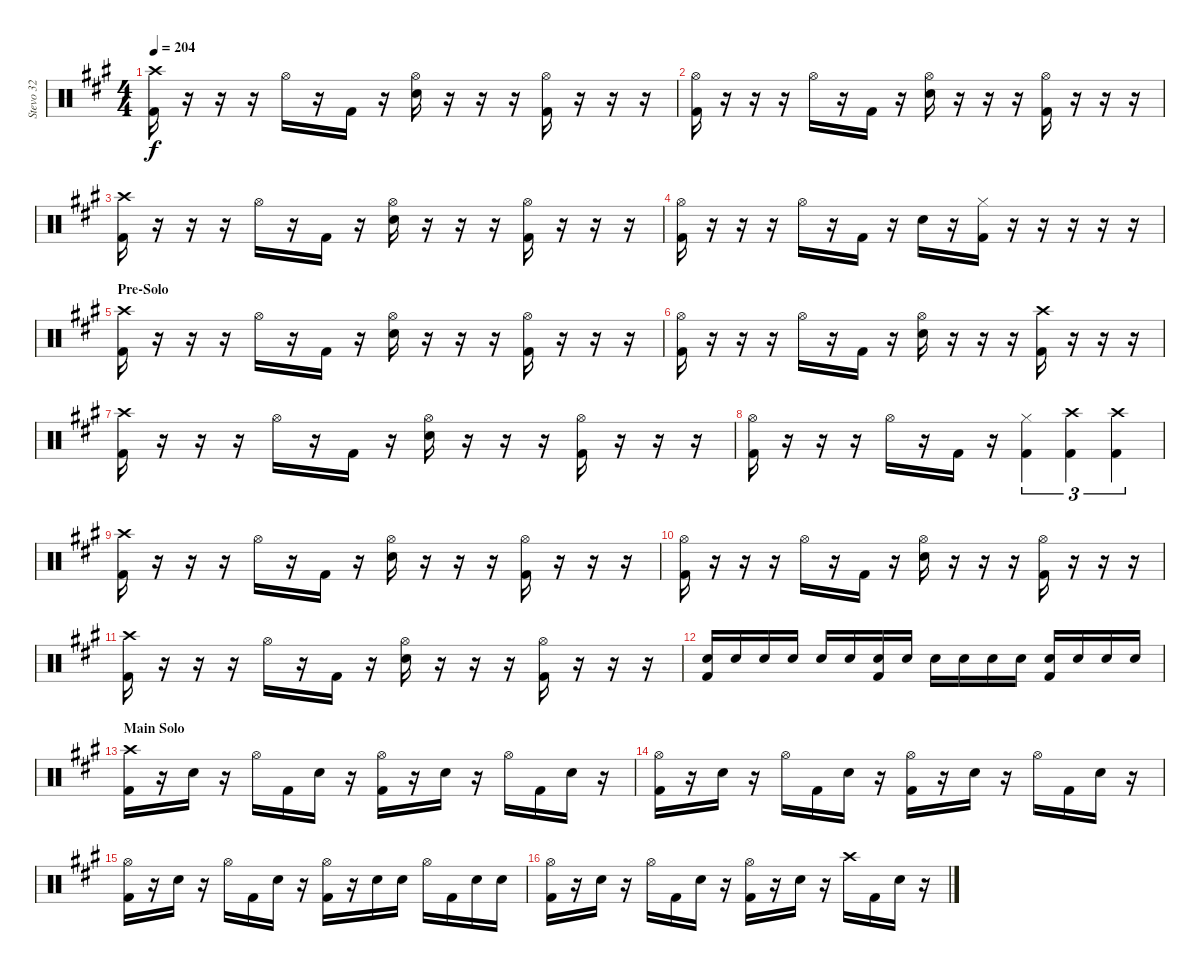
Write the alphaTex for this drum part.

\track ("Stevo 32" "Stevo 32") {instrument percussion}
\staff {score}
\articulation defaults
\ts (4 4)
\tempo 204
\clef neutral
\ks a
("Crash high (hit)" "Kick (hit) 2").16{dy f} r.16 r.16 r.16 "Hi-Hat (open)".16 r.16 "Kick (hit) 2".16 r.16 ("Hi-Hat (open)" "Snare (hit) 2").16 r.16 r.16 r.16 ("Hi-Hat (open)" "Kick (hit) 2").16 r.16 r.16 r.16 |
("Hi-Hat (open)" "Kick (hit) 2").16 r.16 r.16 r.16 "Hi-Hat (open)".16 r.16 "Kick (hit) 2".16 r.16 ("Hi-Hat (open)" "Snare (hit) 2").16 r.16 r.16 r.16 ("Hi-Hat (open)" "Kick (hit) 2").16 r.16 r.16 r.16 |
("Crash high (hit)" "Kick (hit) 2").16 r.16 r.16 r.16 "Hi-Hat (open)".16 r.16 "Kick (hit) 2".16 r.16 ("Hi-Hat (open)" "Snare (hit) 2").16 r.16 r.16 r.16 ("Hi-Hat (open)" "Kick (hit) 2").16 r.16 r.16 r.16 |
("Hi-Hat (open)" "Kick (hit) 2").16 r.16 r.16 r.16 "Hi-Hat (open)".16 r.16 "Kick (hit) 2".16 r.16 "Snare (hit) 2".16 r.16 ("Hi-Hat (closed)" "Kick (hit) 2").16 r.16 r.16 r.16 r.16 r.16 |
\section ("" "Pre-Solo")
("Crash high (hit)" "Kick (hit) 2").16 r.16 r.16 r.16 "Hi-Hat (open)".16 r.16 "Kick (hit) 2".16 r.16 ("Hi-Hat (open)" "Snare (hit) 2").16 r.16 r.16 r.16 ("Hi-Hat (open)" "Kick (hit) 2").16 r.16 r.16 r.16 |
("Hi-Hat (open)" "Kick (hit) 2").16 r.16 r.16 r.16 "Hi-Hat (open)".16 r.16 "Kick (hit) 2".16 r.16 ("Hi-Hat (open)" "Snare (hit) 2").16 r.16 r.16 r.16 ("Crash high (hit)" "Kick (hit) 2").16 r.16 r.16 r.16 |
("Crash high (hit)" "Kick (hit) 2").16 r.16 r.16 r.16 "Hi-Hat (open)".16 r.16 "Kick (hit) 2".16 r.16 ("Hi-Hat (open)" "Snare (hit) 2").16 r.16 r.16 r.16 ("Hi-Hat (open)" "Kick (hit) 2").16 r.16 r.16 r.16 |
("Hi-Hat (open)" "Kick (hit) 2").16 r.16 r.16 r.16 "Hi-Hat (open)".16 r.16 "Kick (hit) 2".16 r.16 ("Hi-Hat (closed)" "Kick (hit) 2").4{tu (3 2)} ("Crash high (hit)" "Kick (hit) 2").4{tu (3 2)} ("Crash high (hit)" "Kick (hit) 2").4{tu (3 2)} |
("Crash high (hit)" "Kick (hit) 2").16 r.16 r.16 r.16 "Hi-Hat (open)".16 r.16 "Kick (hit) 2".16 r.16 ("Hi-Hat (open)" "Snare (hit) 2").16 r.16 r.16 r.16 ("Hi-Hat (open)" "Kick (hit) 2").16 r.16 r.16 r.16 |
("Hi-Hat (open)" "Kick (hit) 2").16 r.16 r.16 r.16 "Hi-Hat (open)".16 r.16 "Kick (hit) 2".16 r.16 ("Hi-Hat (open)" "Snare (hit) 2").16 r.16 r.16 r.16 ("Hi-Hat (open)" "Kick (hit) 2").16 r.16 r.16 r.16 |
("Crash high (hit)" "Kick (hit) 2").16 r.16 r.16 r.16 "Hi-Hat (open)".16 r.16 "Kick (hit) 2".16 r.16 ("Hi-Hat (open)" "Snare (hit) 2").16 r.16 r.16 r.16 ("Hi-Hat (open)" "Kick (hit) 2").16 r.16 r.16 r.16 |
("Snare (hit) 2" "Kick (hit) 2").16 "Snare (hit) 2".16 "Snare (hit) 2".16 "Snare (hit) 2".16 "Snare (hit) 2".16 "Snare (hit) 2".16 ("Snare (hit) 2" "Kick (hit) 2").16 "Snare (hit) 2".16 "Snare (hit) 2".16 "Snare (hit) 2".16 "Snare (hit) 2".16 "Snare (hit) 2".16 ("Snare (hit) 2" "Kick (hit) 2").16 "Snare (hit) 2".16 "Snare (hit) 2".16 "Snare (hit) 2".16 |
\section ("" "Main Solo")
("Crash high (hit)" "Kick (hit) 2").16 r.16 "Snare (hit) 2".16 r.16 "Hi-Hat (open)".16 "Kick (hit) 2".16 "Snare (hit) 2".16 r.16 ("Hi-Hat (open)" "Kick (hit) 2").16 r.16 "Snare (hit) 2".16 r.16 "Hi-Hat (open)".16 "Kick (hit) 2".16 "Snare (hit) 2".16 r.16 |
("Hi-Hat (open)" "Kick (hit) 2").16 r.16 "Snare (hit) 2".16 r.16 "Hi-Hat (open)".16 "Kick (hit) 2".16 "Snare (hit) 2".16 r.16 ("Hi-Hat (open)" "Kick (hit) 2").16 r.16 "Snare (hit) 2".16 r.16 "Hi-Hat (open)".16 "Kick (hit) 2".16 "Snare (hit) 2".16 r.16 |
("Hi-Hat (open)" "Kick (hit) 2").16 r.16 "Snare (hit) 2".16 r.16 "Hi-Hat (open)".16 "Kick (hit) 2".16 "Snare (hit) 2".16 r.16 ("Hi-Hat (open)" "Kick (hit) 2").16 r.16 "Snare (hit) 2".16 "Snare (hit) 2".16 "Hi-Hat (open)".16 "Kick (hit) 2".16 "Snare (hit) 2".16 "Snare (hit) 2".16 |
("Hi-Hat (open)" "Kick (hit) 2").16 r.16 "Snare (hit) 2".16 r.16 "Hi-Hat (open)".16 "Kick (hit) 2".16 "Snare (hit) 2".16 r.16 ("Hi-Hat (open)" "Kick (hit) 2").16 r.16 "Snare (hit) 2".16 r.16 "Crash high (hit)".16 "Kick (hit) 2".16 "Snare (hit) 2".16 r.16
